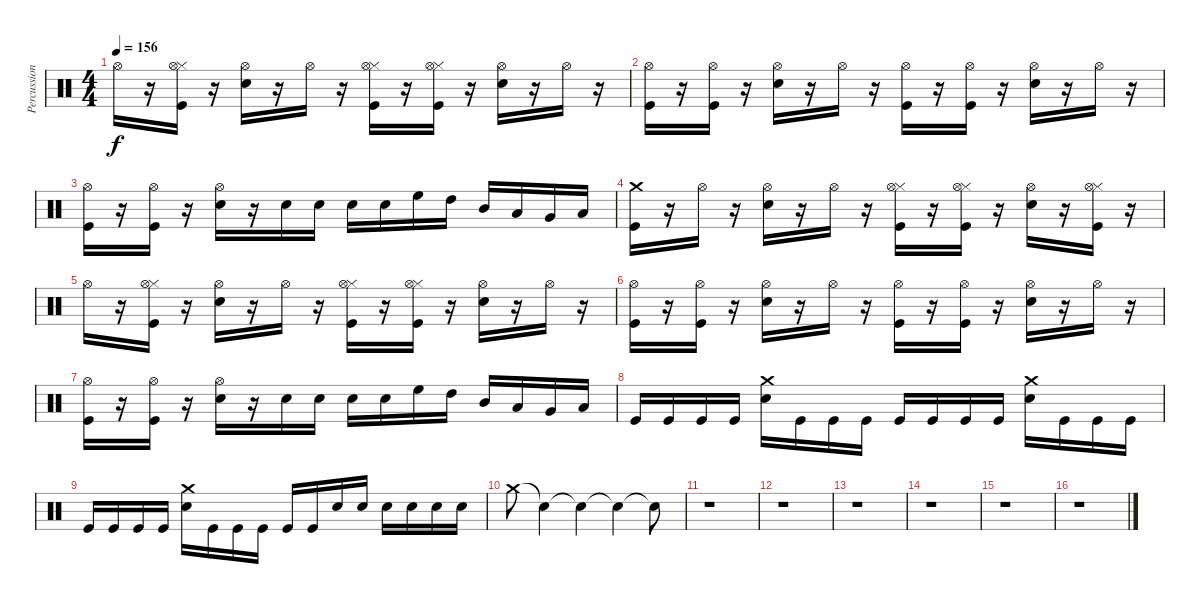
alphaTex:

\track ("Percussion" "Percussion") {instrument percussion}
\staff {score}
\articulation defaults
\ts (4 4)
\tempo 156
\clef neutral
\ks c "Hi-Hat (open)".16{dy f}
r.16 ("Kick (hit)" "Hi-Hat (closed)" "Hi-Hat (open)").16 r.16 ("Hi-Hat (open)" "Snare (hit) 2").16 r.16 "Hi-Hat (open)".16 r.16 ("Kick (hit)" "Hi-Hat (closed)" "Hi-Hat (open)").16 r.16 ("Kick (hit)" "Hi-Hat (closed)" "Hi-Hat (open)").16 r.16 ("Hi-Hat (open)" "Snare (hit) 2").16 r.16 "Hi-Hat (open)".16 r.16 |
("Kick (hit)" "Hi-Hat (open)").16 r.16 ("Kick (hit)" "Hi-Hat (open)").16 r.16 ("Snare (hit) 2" "Hi-Hat (open)").16 r.16 "Hi-Hat (open)".16 r.16 ("Kick (hit)" "Hi-Hat (open)").16 r.16 ("Kick (hit)" "Hi-Hat (open)").16 r.16 ("Snare (hit) 2" "Hi-Hat (open)").16 r.16 "Hi-Hat (open)".16 r.16 |
("Kick (hit)" "Hi-Hat (open)").16 r.16 ("Kick (hit)" "Hi-Hat (open)").16 r.16 ("Snare (hit) 2" "Hi-Hat (open)").16 r.16 "Snare (hit) 2".16 "Snare (hit) 2".16 "Snare (hit) 2".16 "Snare (hit) 2".16 "High Floor Tom (hit)".16 "High Tom (hit)".16 "Mid Tom (hit)".16 "Low Tom (hit)".16 "Very Low Tom (hit)".16 "Low Floor Tom (hit)".16 |
("Kick (hit)" "Crash medium (hit)").16 r.16 "Hi-Hat (open)".16 r.16 ("Hi-Hat (open)" "Snare (hit) 2").16 r.16 "Hi-Hat (open)".16 r.16 ("Kick (hit)" "Hi-Hat (closed)" "Hi-Hat (open)").16 r.16 ("Kick (hit)" "Hi-Hat (closed)" "Hi-Hat (open)").16 r.16 ("Hi-Hat (open)" "Snare (hit) 2").16 r.16 ("Kick (hit)" "Hi-Hat (closed)" "Hi-Hat (open)").16 r.16 |
"Hi-Hat (open)".16 r.16 ("Kick (hit)" "Hi-Hat (closed)" "Hi-Hat (open)").16 r.16 ("Hi-Hat (open)" "Snare (hit) 2").16 r.16 "Hi-Hat (open)".16 r.16 ("Kick (hit)" "Hi-Hat (closed)" "Hi-Hat (open)").16 r.16 ("Kick (hit)" "Hi-Hat (closed)" "Hi-Hat (open)").16 r.16 ("Hi-Hat (open)" "Snare (hit) 2").16 r.16 "Hi-Hat (open)".16 r.16 |
("Kick (hit)" "Hi-Hat (open)").16 r.16 ("Kick (hit)" "Hi-Hat (open)").16 r.16 ("Snare (hit) 2" "Hi-Hat (open)").16 r.16 "Hi-Hat (open)".16 r.16 ("Kick (hit)" "Hi-Hat (open)").16 r.16 ("Kick (hit)" "Hi-Hat (open)").16 r.16 ("Snare (hit) 2" "Hi-Hat (open)").16 r.16 "Hi-Hat (open)".16 r.16 |
("Kick (hit)" "Hi-Hat (open)").16 r.16 ("Kick (hit)" "Hi-Hat (open)").16 r.16 ("Snare (hit) 2" "Hi-Hat (open)").16 r.16 "Snare (hit) 2".16 "Snare (hit) 2".16 "Snare (hit) 2".16 "Snare (hit) 2".16 "High Floor Tom (hit)".16 "High Tom (hit)".16 "Mid Tom (hit)".16 "Low Tom (hit)".16 "Very Low Tom (hit)".16 "Low Floor Tom (hit)".16 |
"Kick (hit)".16 "Kick (hit)".16 "Kick (hit)".16 "Kick (hit)".16 ("Snare (hit) 2" "Crash medium (hit)").16 "Kick (hit)".16 "Kick (hit)".16 "Kick (hit)".16 "Kick (hit)".16 "Kick (hit)".16 "Kick (hit)".16 "Kick (hit)".16 ("Snare (hit) 2" "Crash medium (hit)").16 "Kick (hit)".16 "Kick (hit)".16 "Kick (hit)".16 |
"Kick (hit)".16 "Kick (hit)".16 "Kick (hit)".16 "Kick (hit)".16 ("Snare (hit) 2" "Crash medium (hit)").16 "Kick (hit)".16 "Kick (hit)".16 "Kick (hit)".16 "Kick (hit)".16 "Kick (hit)".16 "Snare (hit) 2".16 "Snare (hit) 2".16 "Snare (hit) 2".16 "Snare (hit) 2".16 "Snare (hit) 2".16 "Snare (hit) 2".16 |
"Crash medium (hit)".8 "Snare (hit)"{t}.4 "Snare (hit)"{t}.4 "Snare (hit)"{t}.4 "Snare (hit)"{t}.8 |
r.1 |
r.1 |
r.1 |
r.1 |
r.1 |
r.1
